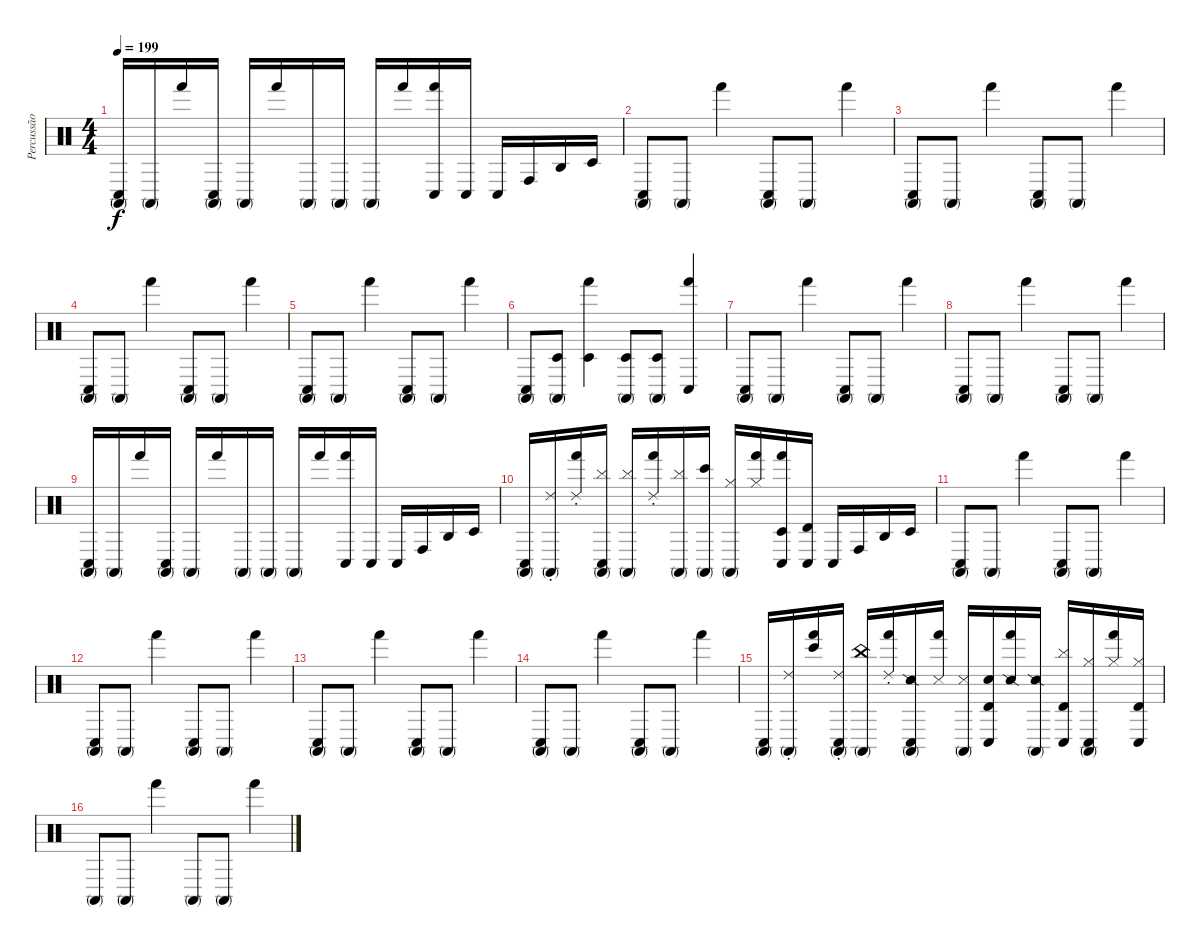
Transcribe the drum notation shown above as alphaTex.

\track ("Percussão" "Percussão") {instrument percussion}
\staff {score}
\articulation defaults
\ts (4 4)
\tempo 199
\clef neutral
\ks c
("Conga high (mute)" "Conga low (hit)").16{dy f} "Conga high (mute)".16 "Hand (hit)".16 ("Conga high (mute)" "Conga low (hit)").16 "Conga high (mute)".16 "Hand (hit)".16 "Conga high (mute)".16 "Conga high (mute)".16 "Conga high (mute)".16 "Hand (hit)".16 ("Conga low (hit)" "Hand (hit)").16 "Conga low (hit)".16 "Conga low (hit)".16 "Conga high (hit)".16 "Agogo high (hit)".16 "Timbale low (hit)".16 |
("Conga high (mute)" "Conga low (hit)").8 "Conga high (mute)".8 "Hand (hit)".4 ("Conga high (mute)" "Conga low (hit)").8 "Conga high (mute)".8 "Hand (hit)".4 |
("Conga high (mute)" "Conga low (hit)").8 "Conga high (mute)".8 "Hand (hit)".4 ("Conga high (mute)" "Conga low (hit)").8 "Conga high (mute)".8 "Hand (hit)".4 |
("Conga high (mute)" "Conga low (hit)").8 "Conga high (mute)".8 "Hand (hit)".4 ("Conga high (mute)" "Conga low (hit)").8 "Conga high (mute)".8 "Hand (hit)".4 |
("Conga high (mute)" "Conga low (hit)").8 "Conga high (mute)".8 "Hand (hit)".4 ("Conga high (mute)" "Conga low (hit)").8 "Conga high (mute)".8 "Hand (hit)".4 |
("Conga high (mute)" "Conga low (hit)").8 ("Conga high (mute)" "Timbale low (hit)").8 ("Hand (hit)" "Timbale low (hit)").4 ("Conga high (mute)" "Timbale low (hit)").8 ("Conga high (mute)" "Timbale low (hit)").8 ("Hand (hit)" "Conga low (hit)").4 |
("Conga high (mute)" "Conga low (hit)").8 "Conga high (mute)".8 "Hand (hit)".4 ("Conga high (mute)" "Conga low (hit)").8 "Conga high (mute)".8 "Hand (hit)".4 |
("Conga high (mute)" "Conga low (hit)").8 "Conga high (mute)".8 "Hand (hit)".4 ("Conga high (mute)" "Conga low (hit)").8 "Conga high (mute)".8 "Hand (hit)".4 |
("Conga high (mute)" "Conga low (hit)").16 "Conga high (mute)".16 "Hand (hit)".16 ("Conga high (mute)" "Conga low (hit)").16 "Conga high (mute)".16 "Hand (hit)".16 "Conga high (mute)".16 "Conga high (mute)".16 "Conga high (mute)".16 "Hand (hit)".16 ("Conga low (hit)" "Hand (hit)").16 "Conga low (hit)".16 "Conga low (hit)".16 "Conga high (hit)".16 "Agogo high (hit)".16 "Timbale low (hit)".16 |
("Conga high (mute)" "Conga low (hit)").16 ("Conga high (mute)" "Ride (choke) 2").16 ("Hand (hit)" "Ride (choke) 2").16 ("Conga high (mute)" "Conga low (hit)" "Cymbal (hit)").16 ("Conga high (mute)" "Cymbal (hit)").16 ("Hand (hit)" "Ride (choke) 2").16 ("Conga high (mute)" "Cymbal (hit)").16 ("Conga high (mute)" "Bongo High (hit)").16 ("Conga high (mute)" "Hi-Hat (closed)").16 ("Hand (hit)" "Hi-Hat (closed)").16 ("Conga low (hit)" "Hand (hit)" "Timbale low (hit)").16 ("Conga low (hit)" "Timbale high (hit)").16 "Conga low (hit)".16 "Conga high (hit)".16 "Agogo high (hit)".16 "Timbale low (hit)".16 |
("Conga high (mute)" "Conga low (hit)").8 "Conga high (mute)".8 "Hand (hit)".4 ("Conga high (mute)" "Conga low (hit)").8 "Conga high (mute)".8 "Hand (hit)".4 |
("Conga high (mute)" "Conga low (hit)").8 "Conga high (mute)".8 "Hand (hit)".4 ("Conga high (mute)" "Conga low (hit)").8 "Conga high (mute)".8 "Hand (hit)".4 |
("Conga high (mute)" "Conga low (hit)").8 "Conga high (mute)".8 "Hand (hit)".4 ("Conga high (mute)" "Conga low (hit)").8 "Conga high (mute)".8 "Hand (hit)".4 |
("Conga high (mute)" "Conga low (hit)").8 "Conga high (mute)".8 "Hand (hit)".4 ("Conga high (mute)" "Conga low (hit)").8 "Conga high (mute)".8 "Hand (hit)".4 |
("Conga high (mute)" "Conga low (hit)").16 ("Conga high (mute)" "Ride (choke) 2").16 ("Hand (hit)" "Bongo High (hit)").16 ("Conga high (mute)" "Conga low (hit)" "Ride (choke) 2").16 ("Conga high (mute)" "China (hit)").16 ("Hand (hit)" "Ride (choke) 2").16 ("Conga high (mute)" "Conga low (hit)" "Snare (side stick) 2").16 ("Hand (hit)" "Metronome (hit)").16 ("Conga high (mute)" "Metronome (hit)").16 ("Timbale high (hit)" "Conga low (hit)" "Snare (hit) 2").16 ("Hand (hit)" "Snare (side stick) 2").16 ("Conga high (mute)" "Snare (side stick) 2").16 ("Timbale high (hit)" "Conga low (hit)" "Cymbal (hit)").16 ("Conga high (mute)" "Conga low (hit)" "Hi-Hat (closed)").16 ("Hand (hit)" "Hi-Hat (closed)").16 ("Timbale high (hit)" "Conga low (hit)" "Hi-Hat (closed)").16 |
"Conga high (mute)".8 "Conga high (mute)".8 "Hand (hit)".4 "Conga high (mute)".8 "Conga high (mute)".8 "Hand (hit)".4
